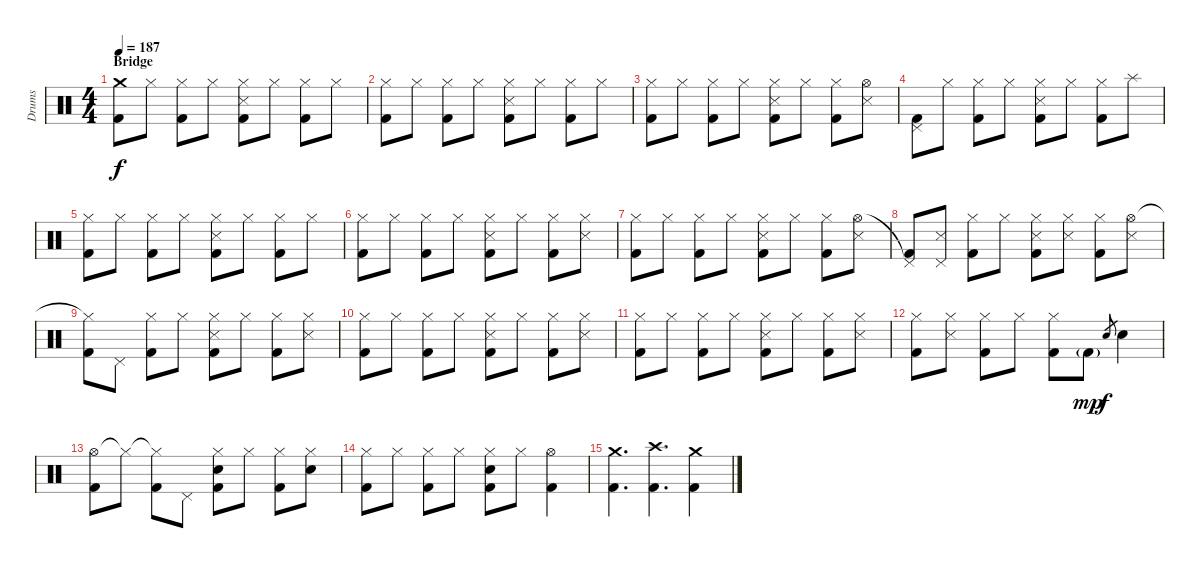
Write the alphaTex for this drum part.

\track ("Drums" "Drums") {instrument percussion}
\staff {score}
\articulation defaults
\ts (4 4)
\section ("" "Bridge")
\tempo 187
\clef neutral
\ks c
("Crash medium (hit)" "Kick (hit) 2").8{dy f} "Hi-Hat (closed)".8 ("Hi-Hat (closed)" "Kick (hit) 2").8 "Hi-Hat (closed)".8 ("Hi-Hat (closed)" "Snare (side stick) 3" "Kick (hit) 2").8 "Hi-Hat (closed)".8 ("Hi-Hat (closed)" "Kick (hit) 2").8 "Hi-Hat (closed)".8 |
("Hi-Hat (closed)" "Kick (hit) 2").8 "Hi-Hat (closed)".8 ("Hi-Hat (closed)" "Kick (hit) 2").8 "Hi-Hat (closed)".8 ("Hi-Hat (closed)" "Snare (side stick) 3" "Kick (hit) 2").8 "Hi-Hat (closed)".8 ("Hi-Hat (closed)" "Kick (hit) 2").8 "Hi-Hat (closed)".8 |
("Hi-Hat (closed)" "Kick (hit) 2").8 "Hi-Hat (closed)".8 ("Hi-Hat (closed)" "Kick (hit) 2").8 "Hi-Hat (closed)".8 ("Hi-Hat (closed)" "Snare (side stick) 3" "Kick (hit) 2").8 "Hi-Hat (closed)".8 ("Hi-Hat (closed)" "Kick (hit) 2").8 ("Hi-Hat (open)" "Snare (side stick) 3").8 |
("Pedal Hi-Hat (hit)" "Kick (hit) 2").8 "Hi-Hat (closed)".8 ("Hi-Hat (closed)" "Kick (hit) 2").8 "Hi-Hat (closed)".8 ("Hi-Hat (closed)" "Snare (side stick) 3" "Kick (hit) 2").8 "Hi-Hat (closed)".8 ("Hi-Hat (closed)" "Kick (hit) 2").8 "Splash (hit)".8 |
("Hi-Hat (closed)" "Kick (hit) 2").8 "Hi-Hat (closed)".8 ("Hi-Hat (closed)" "Kick (hit) 2").8 "Hi-Hat (closed)".8 ("Hi-Hat (closed)" "Snare (side stick) 3" "Kick (hit) 2").8 "Hi-Hat (closed)".8 ("Hi-Hat (closed)" "Kick (hit) 2").8 "Hi-Hat (closed)".8 |
("Hi-Hat (closed)" "Kick (hit) 2").8 "Hi-Hat (closed)".8 ("Hi-Hat (closed)" "Kick (hit) 2").8 "Hi-Hat (closed)".8 ("Hi-Hat (closed)" "Snare (side stick) 3" "Kick (hit) 2").8 "Hi-Hat (closed)".8 ("Hi-Hat (closed)" "Kick (hit) 2").8 ("Hi-Hat (closed)" "Snare (side stick) 3").8 |
("Hi-Hat (closed)" "Kick (hit) 2").8 "Hi-Hat (closed)".8 ("Hi-Hat (closed)" "Kick (hit) 2").8 "Hi-Hat (closed)".8 ("Hi-Hat (closed)" "Snare (side stick) 3" "Kick (hit) 2").8 "Hi-Hat (closed)".8 ("Hi-Hat (closed)" "Kick (hit) 2").8 ("Hi-Hat (open)" "Snare (side stick) 3").8 |
("Pedal Hi-Hat (hit)"{t} "Kick (hit) 2").8 ("Pedal Hi-Hat (hit)" "Snare (side stick) 3").8 ("Hi-Hat (closed)" "Kick (hit) 2").8 "Hi-Hat (closed)".8 ("Hi-Hat (closed)" "Snare (side stick) 3" "Kick (hit) 2").8 ("Hi-Hat (closed)" "Snare (side stick) 3").8 ("Hi-Hat (closed)" "Kick (hit) 2").8 ("Hi-Hat (open)" "Snare (side stick) 3").8 |
("Hi-Hat (closed)"{t} "Kick (hit) 2").8 "Pedal Hi-Hat (hit)".8 ("Hi-Hat (closed)" "Kick (hit) 2").8 "Hi-Hat (closed)".8 ("Hi-Hat (closed)" "Snare (side stick) 3" "Kick (hit) 2").8 "Hi-Hat (closed)".8 ("Hi-Hat (closed)" "Kick (hit) 2").8 ("Hi-Hat (closed)" "Snare (side stick) 3").8 |
("Hi-Hat (closed)" "Kick (hit) 2").8 "Hi-Hat (closed)".8 ("Hi-Hat (closed)" "Kick (hit) 2").8 "Hi-Hat (closed)".8 ("Hi-Hat (closed)" "Snare (side stick) 3" "Kick (hit) 2").8 "Hi-Hat (closed)".8 ("Hi-Hat (closed)" "Kick (hit) 2").8 ("Hi-Hat (closed)" "Snare (side stick) 3").8 |
("Hi-Hat (closed)" "Kick (hit) 2").8 "Hi-Hat (closed)".8 ("Hi-Hat (closed)" "Kick (hit) 2").8 "Hi-Hat (closed)".8 ("Hi-Hat (closed)" "Snare (side stick) 3" "Kick (hit) 2").8 "Hi-Hat (closed)".8 ("Hi-Hat (closed)" "Kick (hit) 2").8 ("Hi-Hat (closed)" "Snare (side stick) 3").8 |
("Hi-Hat (closed)" "Kick (hit) 2").8 ("Hi-Hat (closed)" "Snare (side stick) 3").8 ("Hi-Hat (closed)" "Kick (hit) 2").8 "Hi-Hat (closed)".8 ("Hi-Hat (closed)" "Kick (hit) 2").8 "Kick (hit) 2"{g}.8{dy mp} "Electric Snare (hit)".8{gr dy f} "Electric Snare (hit)".4 |
("Hi-Hat (open)" "Kick (hit) 2").8 "Hi-Hat (closed)"{t}.8 ("Hi-Hat (closed)"{t} "Kick (hit) 2").8 "Pedal Hi-Hat (hit)".8 ("Hi-Hat (closed)" "Electric Snare (hit)" "Kick (hit) 2").8 "Hi-Hat (closed)".8 ("Hi-Hat (closed)" "Kick (hit) 2").8 ("Hi-Hat (closed)" "Electric Snare (hit)").8 |
("Hi-Hat (closed)" "Kick (hit) 2").8 "Hi-Hat (closed)".8 ("Hi-Hat (closed)" "Kick (hit) 2").8 "Hi-Hat (closed)".8 ("Hi-Hat (closed)" "Electric Snare (hit)" "Kick (hit) 2").8 "Hi-Hat (closed)".8 ("Hi-Hat (open)" "Kick (hit) 2").4 |
("Crash medium (hit)" "Kick (hit) 2").4{d} ("Crash high (hit)" "Kick (hit) 2").4{d} ("Crash medium (hit)" "Kick (hit) 2").4
